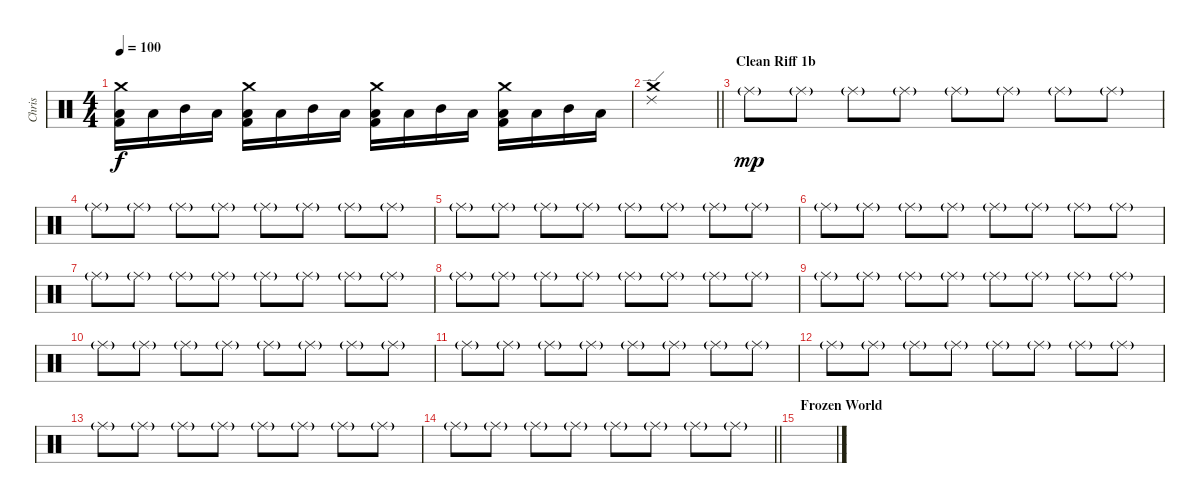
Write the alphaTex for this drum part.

\track ("Chris" "Chris") {instrument percussion}
\staff {score}
\articulation defaults
\ts (4 4)
\tempo 100
\clef neutral
\ks c
("Crash medium (hit)" "Low Tom (hit)" "Kick (hit) 2").16{dy f} "Low Tom (hit)".16 "Mid Tom (hit)".16 "Low Tom (hit)".16 ("Crash medium (hit)" "Low Tom (hit)" "Kick (hit) 2").16 "Low Tom (hit)".16 "Mid Tom (hit)".16 "Low Tom (hit)".16 ("Crash medium (hit)" "Low Tom (hit)" "Kick (hit) 2").16 "Low Tom (hit)".16 "Mid Tom (hit)".16 "Low Tom (hit)".16 ("Crash medium (hit)" "Low Tom (hit)" "Kick (hit) 2").16 "Low Tom (hit)".16 "Mid Tom (hit)".16 "Low Tom (hit)".16 |
\barLineRight lightlight
("Crash medium (hit)" "Ride (edge) 2").1 |
\section ("" "Clean Riff 1b")
"Ride (middle)"{g}.8{dy mp} "Ride (middle)"{g}.8 "Ride (middle)"{g}.8 "Ride (middle)"{g}.8 "Ride (middle)"{g}.8 "Ride (middle)"{g}.8 "Ride (middle)"{g}.8 "Ride (middle)"{g}.8 |
"Ride (middle)"{g}.8 "Ride (middle)"{g}.8 "Ride (middle)"{g}.8 "Ride (middle)"{g}.8 "Ride (middle)"{g}.8 "Ride (middle)"{g}.8 "Ride (middle)"{g}.8 "Ride (middle)"{g}.8 |
"Ride (middle)"{g}.8 "Ride (middle)"{g}.8 "Ride (middle)"{g}.8 "Ride (middle)"{g}.8 "Ride (middle)"{g}.8 "Ride (middle)"{g}.8 "Ride (middle)"{g}.8 "Ride (middle)"{g}.8 |
"Ride (middle)"{g}.8{volume 11} "Ride (middle)"{g}.8 "Ride (middle)"{g}.8 "Ride (middle)"{g}.8 "Ride (middle)"{g}.8 "Ride (middle)"{g}.8 "Ride (middle)"{g}.8 "Ride (middle)"{g}.8 |
"Ride (middle)"{g}.8 "Ride (middle)"{g}.8 "Ride (middle)"{g}.8 "Ride (middle)"{g}.8 "Ride (middle)"{g}.8 "Ride (middle)"{g}.8 "Ride (middle)"{g}.8 "Ride (middle)"{g}.8 |
"Ride (middle)"{g}.8 "Ride (middle)"{g}.8 "Ride (middle)"{g}.8 "Ride (middle)"{g}.8 "Ride (middle)"{g}.8 "Ride (middle)"{g}.8 "Ride (middle)"{g}.8 "Ride (middle)"{g}.8 |
"Ride (middle)"{g}.8 "Ride (middle)"{g}.8 "Ride (middle)"{g}.8 "Ride (middle)"{g}.8 "Ride (middle)"{g}.8 "Ride (middle)"{g}.8 "Ride (middle)"{g}.8 "Ride (middle)"{g}.8 |
"Ride (middle)"{g}.8 "Ride (middle)"{g}.8 "Ride (middle)"{g}.8 "Ride (middle)"{g}.8 "Ride (middle)"{g}.8 "Ride (middle)"{g}.8 "Ride (middle)"{g}.8 "Ride (middle)"{g}.8 |
"Ride (middle)"{g}.8 "Ride (middle)"{g}.8 "Ride (middle)"{g}.8 "Ride (middle)"{g}.8 "Ride (middle)"{g}.8 "Ride (middle)"{g}.8 "Ride (middle)"{g}.8 "Ride (middle)"{g}.8 |
"Ride (middle)"{g}.8 "Ride (middle)"{g}.8 "Ride (middle)"{g}.8 "Ride (middle)"{g}.8 "Ride (middle)"{g}.8 "Ride (middle)"{g}.8 "Ride (middle)"{g}.8 "Ride (middle)"{g}.8 |
"Ride (middle)"{g}.8 "Ride (middle)"{g}.8 "Ride (middle)"{g}.8 "Ride (middle)"{g}.8 "Ride (middle)"{g}.8 "Ride (middle)"{g}.8 "Ride (middle)"{g}.8 "Ride (middle)"{g}.8 |
\barLineRight lightlight "Ride (middle)"{g}.8 "Ride (middle)"{g}.8 "Ride (middle)"{g}.8 "Ride (middle)"{g}.8 "Ride (middle)"{g}.8 "Ride (middle)"{g}.8 "Ride (middle)"{g}.8 "Ride (middle)"{g}.8
|
\section ("" "Frozen World")
